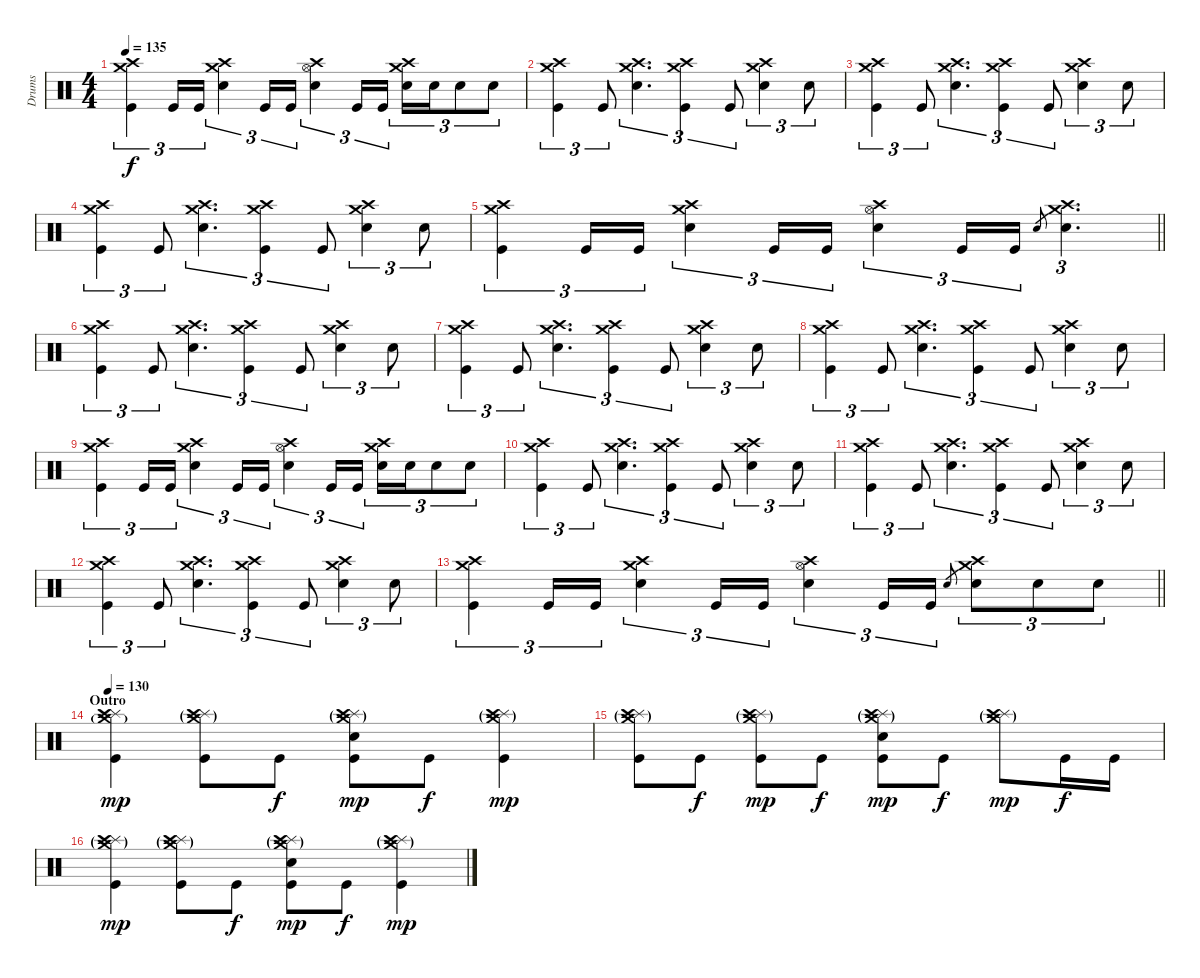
\track ("Drums" "Drums") {instrument percussion}
\staff {score}
\articulation defaults
\ts (4 4)
\tempo 135
\clef neutral
\ks c
("Crash medium (hit)" "Crash high (hit)" "Kick (hit)").4{tu (3 2) dy f} "Kick (hit)".16{tu (3 2)} "Kick (hit)".16{tu (3 2)} ("Crash medium (hit)" "Crash high (hit)" "Electric Snare (hit)").4{tu (3 2)} "Kick (hit)".16{tu (3 2)} "Kick (hit)".16{tu (3 2)} ("Hi-Hat (open)" "Crash high (hit)" "Electric Snare (hit)").4{tu (3 2)} "Kick (hit)".16{tu (3 2)} "Kick (hit)".16{tu (3 2)} ("Crash medium (hit)" "Crash high (hit)" "Electric Snare (hit)").16{tu (3 2)} "Electric Snare (hit)".16{tu (3 2)} "Electric Snare (hit)".8{tu (3 2)} "Electric Snare (hit)".8{tu (3 2)} |
("Crash medium (hit)" "Crash high (hit)" "Kick (hit)").4{tu (3 2)} "Kick (hit)".8{tu (3 2)} ("Crash medium (hit)" "Crash high (hit)" "Electric Snare (hit)").4{d tu (3 2)} ("Crash medium (hit)" "Crash high (hit)" "Kick (hit)").4{tu (3 2)} "Kick (hit)".8{tu (3 2)} ("Crash medium (hit)" "Crash high (hit)" "Electric Snare (hit)").4{tu (3 2)} "Electric Snare (hit)".8{tu (3 2)} |
("Crash medium (hit)" "Crash high (hit)" "Kick (hit)").4{tu (3 2)} "Kick (hit)".8{tu (3 2)} ("Crash medium (hit)" "Crash high (hit)" "Electric Snare (hit)").4{d tu (3 2)} ("Crash medium (hit)" "Crash high (hit)" "Kick (hit)").4{tu (3 2)} "Kick (hit)".8{tu (3 2)} ("Crash medium (hit)" "Crash high (hit)" "Electric Snare (hit)").4{tu (3 2)} "Electric Snare (hit)".8{tu (3 2)} |
("Crash medium (hit)" "Crash high (hit)" "Kick (hit)").4{tu (3 2)} "Kick (hit)".8{tu (3 2)} ("Crash medium (hit)" "Crash high (hit)" "Electric Snare (hit)").4{d tu (3 2)} ("Crash medium (hit)" "Crash high (hit)" "Kick (hit)").4{tu (3 2)} "Kick (hit)".8{tu (3 2)} ("Crash medium (hit)" "Crash high (hit)" "Electric Snare (hit)").4{tu (3 2)} "Electric Snare (hit)".8{tu (3 2)} |
\barLineRight lightlight
("Crash medium (hit)" "Crash high (hit)" "Kick (hit)").4{tu (3 2)} "Kick (hit)".16{tu (3 2)} "Kick (hit)".16{tu (3 2)} ("Crash medium (hit)" "Crash high (hit)" "Electric Snare (hit)").4{tu (3 2)} "Kick (hit)".16{tu (3 2)} "Kick (hit)".16{tu (3 2)} ("Hi-Hat (open)" "Crash high (hit)" "Electric Snare (hit)").4{tu (3 2)} "Kick (hit)".16{tu (3 2)} "Kick (hit)".16{tu (3 2)} "Electric Snare (hit)".8{gr} ("Crash medium (hit)" "Crash high (hit)" "Electric Snare (hit)").4{d tu (3 2)} |
\section ("" "")
("Crash medium (hit)" "Crash high (hit)" "Kick (hit)").4{tu (3 2)} "Kick (hit)".8{tu (3 2)} ("Crash medium (hit)" "Crash high (hit)" "Electric Snare (hit)").4{d tu (3 2)} ("Crash medium (hit)" "Crash high (hit)" "Kick (hit)").4{tu (3 2)} "Kick (hit)".8{tu (3 2)} ("Crash medium (hit)" "Crash high (hit)" "Electric Snare (hit)").4{tu (3 2)} "Electric Snare (hit)".8{tu (3 2)} |
("Crash medium (hit)" "Crash high (hit)" "Kick (hit)").4{tu (3 2)} "Kick (hit)".8{tu (3 2)} ("Crash medium (hit)" "Crash high (hit)" "Electric Snare (hit)").4{d tu (3 2)} ("Crash medium (hit)" "Crash high (hit)" "Kick (hit)").4{tu (3 2)} "Kick (hit)".8{tu (3 2)} ("Crash medium (hit)" "Crash high (hit)" "Electric Snare (hit)").4{tu (3 2)} "Electric Snare (hit)".8{tu (3 2)} |
("Crash medium (hit)" "Crash high (hit)" "Kick (hit)").4{tu (3 2)} "Kick (hit)".8{tu (3 2)} ("Crash medium (hit)" "Crash high (hit)" "Electric Snare (hit)").4{d tu (3 2)} ("Crash medium (hit)" "Crash high (hit)" "Kick (hit)").4{tu (3 2)} "Kick (hit)".8{tu (3 2)} ("Crash medium (hit)" "Crash high (hit)" "Electric Snare (hit)").4{tu (3 2)} "Electric Snare (hit)".8{tu (3 2)} |
("Crash medium (hit)" "Crash high (hit)" "Kick (hit)").4{tu (3 2)} "Kick (hit)".16{tu (3 2)} "Kick (hit)".16{tu (3 2)} ("Crash medium (hit)" "Crash high (hit)" "Electric Snare (hit)").4{tu (3 2)} "Kick (hit)".16{tu (3 2)} "Kick (hit)".16{tu (3 2)} ("Hi-Hat (open)" "Crash high (hit)" "Electric Snare (hit)").4{tu (3 2)} "Kick (hit)".16{tu (3 2)} "Kick (hit)".16{tu (3 2)} ("Crash medium (hit)" "Crash high (hit)" "Electric Snare (hit)").16{tu (3 2)} "Electric Snare (hit)".16{tu (3 2)} "Electric Snare (hit)".8{tu (3 2)} "Electric Snare (hit)".8{tu (3 2)} |
("Crash medium (hit)" "Crash high (hit)" "Kick (hit)").4{tu (3 2)} "Kick (hit)".8{tu (3 2)} ("Crash medium (hit)" "Crash high (hit)" "Electric Snare (hit)").4{d tu (3 2)} ("Crash medium (hit)" "Crash high (hit)" "Kick (hit)").4{tu (3 2)} "Kick (hit)".8{tu (3 2)} ("Crash medium (hit)" "Crash high (hit)" "Electric Snare (hit)").4{tu (3 2)} "Electric Snare (hit)".8{tu (3 2)} |
("Crash medium (hit)" "Crash high (hit)" "Kick (hit)").4{tu (3 2)} "Kick (hit)".8{tu (3 2)} ("Crash medium (hit)" "Crash high (hit)" "Electric Snare (hit)").4{d tu (3 2)} ("Crash medium (hit)" "Crash high (hit)" "Kick (hit)").4{tu (3 2)} "Kick (hit)".8{tu (3 2)} ("Crash medium (hit)" "Crash high (hit)" "Electric Snare (hit)").4{tu (3 2)} "Electric Snare (hit)".8{tu (3 2)} |
("Crash medium (hit)" "Crash high (hit)" "Kick (hit)").4{tu (3 2)} "Kick (hit)".8{tu (3 2)} ("Crash medium (hit)" "Crash high (hit)" "Electric Snare (hit)").4{d tu (3 2)} ("Crash medium (hit)" "Crash high (hit)" "Kick (hit)").4{tu (3 2)} "Kick (hit)".8{tu (3 2)} ("Crash medium (hit)" "Crash high (hit)" "Electric Snare (hit)").4{tu (3 2)} "Electric Snare (hit)".8{tu (3 2)} |
\barLineRight lightlight
("Crash medium (hit)" "Crash high (hit)" "Kick (hit)").4{tu (3 2)} "Kick (hit)".16{tu (3 2)} "Kick (hit)".16{tu (3 2)} ("Crash medium (hit)" "Crash high (hit)" "Electric Snare (hit)").4{tu (3 2)} "Kick (hit)".16{tu (3 2)} "Kick (hit)".16{tu (3 2)} ("Hi-Hat (open)" "Crash high (hit)" "Electric Snare (hit)").4{tu (3 2)} "Kick (hit)".16{tu (3 2)} "Kick (hit)".16{tu (3 2)} "Electric Snare (hit)".8{gr} ("Crash medium (hit)" "Crash high (hit)" "Electric Snare (hit)").8{tu (3 2)} "Electric Snare (hit)".8{tu (3 2)} "Electric Snare (hit)".8{tu (3 2)} |
\section ("" "Outro")
\tempo 130
("Splash (hit)" "Crash medium (hit)"{g} "Crash high (hit)" "Kick (hit)").4{dy mp} ("Splash (hit)" "Crash medium (hit)"{g} "Crash high (hit)"{g} "Kick (hit)").8 "Kick (hit)".8{dy f} ("Splash (hit)" "Crash medium (hit)"{g} "Crash high (hit)"{g} "Electric Snare (hit)" "Kick (hit)").8{dy mp} "Kick (hit)".8{dy f} ("Splash (hit)" "Crash medium (hit)"{g} "Crash high (hit)"{g} "Kick (hit)").4{dy mp} |
("Splash (hit)" "Crash medium (hit)"{g} "Crash high (hit)"{g} "Kick (hit)").8 "Kick (hit)".8{dy f} ("Splash (hit)" "Crash medium (hit)"{g} "Crash high (hit)"{g} "Kick (hit)").8{dy mp} "Kick (hit)".8{dy f} ("Splash (hit)" "Crash medium (hit)"{g} "Crash high (hit)"{g} "Electric Snare (hit)" "Kick (hit)").8{dy mp} "Kick (hit)".8{dy f} ("Splash (hit)" "Crash medium (hit)"{g} "Crash high (hit)"{g}).8{dy mp} "Kick (hit)".16{dy f} "Kick (hit)".16 |
("Splash (hit)" "Crash medium (hit)"{g} "Crash high (hit)"{g} "Kick (hit)").4{dy mp} ("Splash (hit)" "Crash medium (hit)"{g} "Crash high (hit)"{g} "Kick (hit)").8 "Kick (hit)".8{dy f} ("Splash (hit)" "Crash medium (hit)"{g} "Crash high (hit)"{g} "Electric Snare (hit)" "Kick (hit)").8{dy mp} "Kick (hit)".8{dy f} ("Splash (hit)" "Crash medium (hit)"{g} "Crash high (hit)"{g} "Kick (hit)").4{dy mp}
